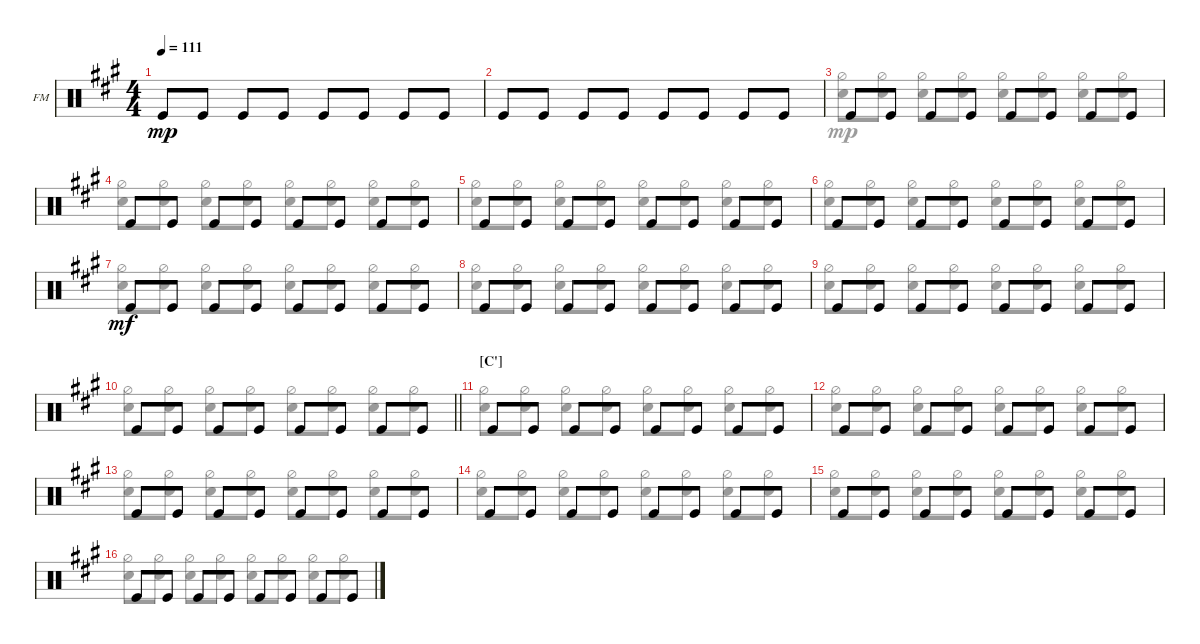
\defaultSystemsLayout 4
\bracketExtendMode groupsimilarinstruments
\firstSystemTrackNameOrientation horizontal
\otherSystemsTrackNameOrientation horizontal
\track ("Fabrizio Moretti" "FM") {instrument percussion}
\staff {score}
\articulation defaults
\voice
\ts (4 4)
\tempo 111
\clef neutral
\ks a "Kick (hit)".8{dy mp} "Kick (hit)".8 "Kick (hit)".8 "Kick (hit)".8 "Kick (hit)".8 "Kick (hit)".8 "Kick (hit)".8 "Kick (hit)".8
|
"Kick (hit)".8 "Kick (hit)".8 "Kick (hit)".8 "Kick (hit)".8 "Kick (hit)".8 "Kick (hit)".8 "Kick (hit)".8 "Kick (hit)".8 |
"Kick (hit)".8 "Kick (hit)".8 "Kick (hit)".8 "Kick (hit)".8 "Kick (hit)".8 "Kick (hit)".8 "Kick (hit)".8 "Kick (hit)".8 |
"Kick (hit)".8 "Kick (hit)".8 "Kick (hit)".8 "Kick (hit)".8 "Kick (hit)".8 "Kick (hit)".8 "Kick (hit)".8 "Kick (hit)".8 |
"Kick (hit)".8 "Kick (hit)".8 "Kick (hit)".8 "Kick (hit)".8 "Kick (hit)".8 "Kick (hit)".8 "Kick (hit)".8 "Kick (hit)".8 |
"Kick (hit)".8 "Kick (hit)".8 "Kick (hit)".8 "Kick (hit)".8 "Kick (hit)".8 "Kick (hit)".8 "Kick (hit)".8 "Kick (hit)".8 |
"Kick (hit)".8{dy mf} "Kick (hit)".8 "Kick (hit)".8 "Kick (hit)".8 "Kick (hit)".8 "Kick (hit)".8 "Kick (hit)".8 "Kick (hit)".8 |
"Kick (hit)".8 "Kick (hit)".8 "Kick (hit)".8 "Kick (hit)".8 "Kick (hit)".8 "Kick (hit)".8 "Kick (hit)".8 "Kick (hit)".8 |
"Kick (hit)".8 "Kick (hit)".8 "Kick (hit)".8 "Kick (hit)".8 "Kick (hit)".8 "Kick (hit)".8 "Kick (hit)".8 "Kick (hit)".8 |
\barLineRight lightlight "Kick (hit)".8 "Kick (hit)".8 "Kick (hit)".8 "Kick (hit)".8 "Kick (hit)".8 "Kick (hit)".8 "Kick (hit)".8 "Kick (hit)".8
|
\section ("C'" "")
"Kick (hit)".8 "Kick (hit)".8 "Kick (hit)".8 "Kick (hit)".8 "Kick (hit)".8 "Kick (hit)".8 "Kick (hit)".8 "Kick (hit)".8 |
"Kick (hit)".8 "Kick (hit)".8 "Kick (hit)".8 "Kick (hit)".8 "Kick (hit)".8 "Kick (hit)".8 "Kick (hit)".8 "Kick (hit)".8 |
"Kick (hit)".8 "Kick (hit)".8 "Kick (hit)".8 "Kick (hit)".8 "Kick (hit)".8 "Kick (hit)".8 "Kick (hit)".8 "Kick (hit)".8 |
"Kick (hit)".8 "Kick (hit)".8 "Kick (hit)".8 "Kick (hit)".8 "Kick (hit)".8 "Kick (hit)".8 "Kick (hit)".8 "Kick (hit)".8 |
"Kick (hit)".8 "Kick (hit)".8 "Kick (hit)".8 "Kick (hit)".8 "Kick (hit)".8 "Kick (hit)".8 "Kick (hit)".8 "Kick (hit)".8 |
"Kick (hit)".8 "Kick (hit)".8 "Kick (hit)".8 "Kick (hit)".8 "Kick (hit)".8 "Kick (hit)".8 "Kick (hit)".8 "Kick (hit)".8
\voice
\clef neutral
\ottava regular
\simile none
\ks a
|
|
("Snare (hit) 2" "Hi-Hat (half)").8{dy mp} ("Snare (hit) 2" "Hi-Hat (half)").8 ("Snare (hit) 2" "Hi-Hat (half)").8 ("Snare (hit) 2" "Hi-Hat (half)").8 ("Snare (hit) 2" "Hi-Hat (half)").8 ("Snare (hit) 2" "Hi-Hat (half)").8 ("Snare (hit) 2" "Hi-Hat (half)").8 ("Snare (hit) 2" "Hi-Hat (half)").8 |
("Snare (hit) 2" "Hi-Hat (half)").8 ("Snare (hit) 2" "Hi-Hat (half)").8 ("Snare (hit) 2" "Hi-Hat (half)").8 ("Snare (hit) 2" "Hi-Hat (half)").8 ("Snare (hit) 2" "Hi-Hat (half)").8 ("Snare (hit) 2" "Hi-Hat (half)").8 ("Snare (hit) 2" "Hi-Hat (half)").8 ("Snare (hit) 2" "Hi-Hat (half)").8 |
("Snare (hit) 2" "Hi-Hat (half)").8 ("Snare (hit) 2" "Hi-Hat (half)").8 ("Snare (hit) 2" "Hi-Hat (half)").8 ("Snare (hit) 2" "Hi-Hat (half)").8 ("Snare (hit) 2" "Hi-Hat (half)").8 ("Snare (hit) 2" "Hi-Hat (half)").8 ("Snare (hit) 2" "Hi-Hat (half)").8 ("Snare (hit) 2" "Hi-Hat (half)").8 |
("Snare (hit) 2" "Hi-Hat (half)").8 ("Snare (hit) 2" "Hi-Hat (half)").8 ("Snare (hit) 2" "Hi-Hat (half)").8 ("Snare (hit) 2" "Hi-Hat (half)").8 ("Snare (hit) 2" "Hi-Hat (half)").8 ("Snare (hit) 2" "Hi-Hat (half)").8 ("Snare (hit) 2" "Hi-Hat (half)").8 ("Snare (hit) 2" "Hi-Hat (half)").8 |
("Snare (hit) 2" "Hi-Hat (half)").8 ("Snare (hit) 2" "Hi-Hat (half)").8 ("Snare (hit) 2" "Hi-Hat (half)").8 ("Snare (hit) 2" "Hi-Hat (half)").8 ("Snare (hit) 2" "Hi-Hat (half)").8 ("Snare (hit) 2" "Hi-Hat (half)").8 ("Snare (hit) 2" "Hi-Hat (half)").8 ("Snare (hit) 2" "Hi-Hat (half)").8 |
("Snare (hit) 2" "Hi-Hat (half)").8 ("Snare (hit) 2" "Hi-Hat (half)").8 ("Snare (hit) 2" "Hi-Hat (half)").8 ("Snare (hit) 2" "Hi-Hat (half)").8 ("Snare (hit) 2" "Hi-Hat (half)").8 ("Snare (hit) 2" "Hi-Hat (half)").8 ("Snare (hit) 2" "Hi-Hat (half)").8 ("Snare (hit) 2" "Hi-Hat (half)").8 |
("Snare (hit) 2" "Hi-Hat (half)").8 ("Snare (hit) 2" "Hi-Hat (half)").8 ("Snare (hit) 2" "Hi-Hat (half)").8 ("Snare (hit) 2" "Hi-Hat (half)").8 ("Snare (hit) 2" "Hi-Hat (half)").8 ("Snare (hit) 2" "Hi-Hat (half)").8 ("Snare (hit) 2" "Hi-Hat (half)").8 ("Snare (hit) 2" "Hi-Hat (half)").8 |
\barLineRight lightlight
("Snare (hit) 2" "Hi-Hat (half)").8 ("Snare (hit) 2" "Hi-Hat (half)").8 ("Snare (hit) 2" "Hi-Hat (half)").8 ("Snare (hit) 2" "Hi-Hat (half)").8 ("Snare (hit) 2" "Hi-Hat (half)").8 ("Snare (hit) 2" "Hi-Hat (half)").8 ("Snare (hit) 2" "Hi-Hat (half)").8 ("Snare (hit) 2" "Hi-Hat (half)").8 |
("Snare (hit) 2" "Hi-Hat (half)").8 ("Snare (hit) 2" "Hi-Hat (half)").8 ("Snare (hit) 2" "Hi-Hat (half)").8 ("Snare (hit) 2" "Hi-Hat (half)").8 ("Snare (hit) 2" "Hi-Hat (half)").8 ("Snare (hit) 2" "Hi-Hat (half)").8 ("Snare (hit) 2" "Hi-Hat (half)").8 ("Snare (hit) 2" "Hi-Hat (half)").8 |
("Snare (hit) 2" "Hi-Hat (half)").8 ("Snare (hit) 2" "Hi-Hat (half)").8 ("Snare (hit) 2" "Hi-Hat (half)").8 ("Snare (hit) 2" "Hi-Hat (half)").8 ("Snare (hit) 2" "Hi-Hat (half)").8 ("Snare (hit) 2" "Hi-Hat (half)").8 ("Snare (hit) 2" "Hi-Hat (half)").8 ("Snare (hit) 2" "Hi-Hat (half)").8 |
("Snare (hit) 2" "Hi-Hat (half)").8 ("Snare (hit) 2" "Hi-Hat (half)").8 ("Snare (hit) 2" "Hi-Hat (half)").8 ("Snare (hit) 2" "Hi-Hat (half)").8 ("Snare (hit) 2" "Hi-Hat (half)").8 ("Snare (hit) 2" "Hi-Hat (half)").8 ("Snare (hit) 2" "Hi-Hat (half)").8 ("Snare (hit) 2" "Hi-Hat (half)").8 |
("Snare (hit) 2" "Hi-Hat (half)").8 ("Snare (hit) 2" "Hi-Hat (half)").8 ("Snare (hit) 2" "Hi-Hat (half)").8 ("Snare (hit) 2" "Hi-Hat (half)").8 ("Snare (hit) 2" "Hi-Hat (half)").8 ("Snare (hit) 2" "Hi-Hat (half)").8 ("Snare (hit) 2" "Hi-Hat (half)").8 ("Snare (hit) 2" "Hi-Hat (half)").8 |
("Snare (hit) 2" "Hi-Hat (half)").8 ("Snare (hit) 2" "Hi-Hat (half)").8 ("Snare (hit) 2" "Hi-Hat (half)").8 ("Snare (hit) 2" "Hi-Hat (half)").8 ("Snare (hit) 2" "Hi-Hat (half)").8 ("Snare (hit) 2" "Hi-Hat (half)").8 ("Snare (hit) 2" "Hi-Hat (half)").8 ("Snare (hit) 2" "Hi-Hat (half)").8 |
("Snare (hit) 2" "Hi-Hat (half)").8 ("Snare (hit) 2" "Hi-Hat (half)").8 ("Snare (hit) 2" "Hi-Hat (half)").8 ("Snare (hit) 2" "Hi-Hat (half)").8 ("Snare (hit) 2" "Hi-Hat (half)").8 ("Snare (hit) 2" "Hi-Hat (half)").8 ("Snare (hit) 2" "Hi-Hat (half)").8 ("Snare (hit) 2" "Hi-Hat (half)").8
